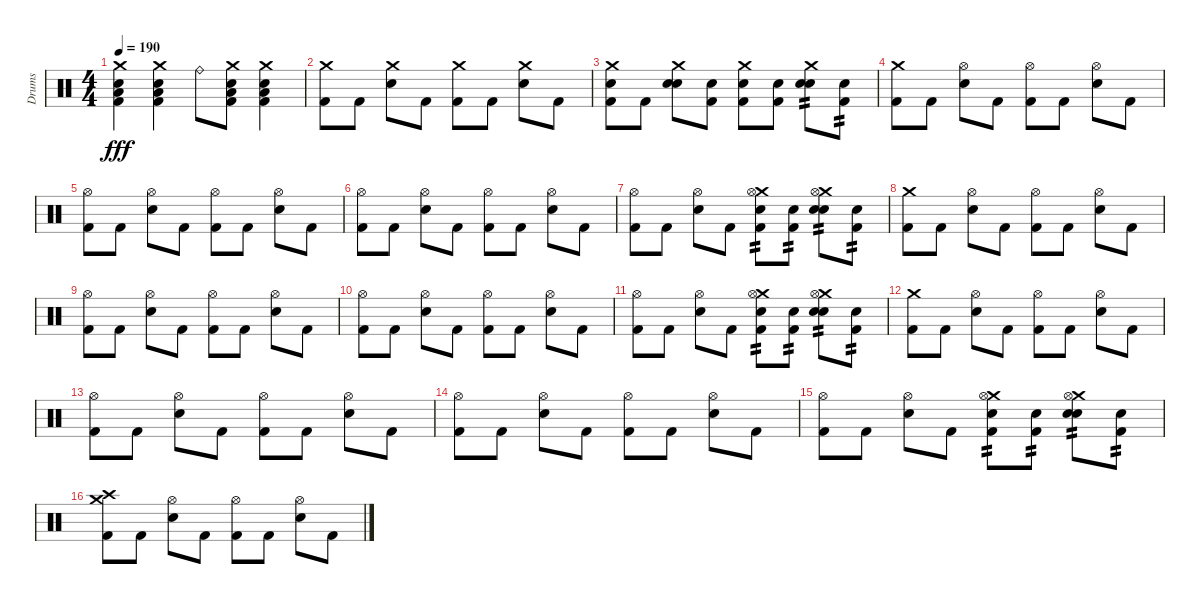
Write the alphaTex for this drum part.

\track ("Drums" "Drums") {instrument percussion}
\staff {score}
\articulation defaults
\ts (4 4)
\tempo 190
\clef neutral
\ks c
("Crash medium (hit)" "Low Floor Tom (hit)" "Snare (hit) 2" "Kick (hit) 2").4{dy fff} ("Crash medium (hit)" "Low Floor Tom (hit)" "Snare (hit) 2" "Kick (hit) 2").4 "Ride (bell)".8 ("Crash medium (hit)" "Low Floor Tom (hit)" "Snare (hit) 2" "Kick (hit) 2").8 ("Crash medium (hit)" "Low Floor Tom (hit)" "Snare (hit) 2" "Kick (hit) 2").4 |
("Crash medium (hit)" "Kick (hit) 2").8 "Kick (hit) 2".8 ("Crash medium (hit)" "Snare (hit) 2").8 "Kick (hit) 2".8 ("Crash medium (hit)" "Kick (hit) 2").8 "Kick (hit) 2".8 ("Crash medium (hit)" "Snare (hit) 2").8 "Kick (hit) 2".8 |
("Crash medium (hit)" "Electric Snare (hit)" "Kick (hit) 2").8 "Kick (hit) 2".8 ("Crash medium (hit)" "Electric Snare (hit)" "Snare (hit) 2").8 ("Electric Snare (hit)" "Kick (hit) 2").8 ("Crash medium (hit)" "Electric Snare (hit)" "Kick (hit) 2").8 ("Electric Snare (hit)" "Kick (hit) 2").8 ("Crash medium (hit)" "Electric Snare (hit)" "Snare (hit) 2").8{tp 2} ("Electric Snare (hit)" "Kick (hit) 2").8{tp 2} |
("Crash medium (hit)" "Kick (hit) 2").8 "Kick (hit) 2".8 ("Hi-Hat (open)" "Snare (hit) 2").8 "Kick (hit) 2".8 ("Hi-Hat (open)" "Kick (hit) 2").8 "Kick (hit) 2".8 ("Hi-Hat (open)" "Snare (hit) 2").8 "Kick (hit) 2".8 |
("Hi-Hat (open)" "Kick (hit) 2").8 "Kick (hit) 2".8 ("Hi-Hat (open)" "Snare (hit) 2").8 "Kick (hit) 2".8 ("Hi-Hat (open)" "Kick (hit) 2").8 "Kick (hit) 2".8 ("Hi-Hat (open)" "Snare (hit) 2").8 "Kick (hit) 2".8 |
("Hi-Hat (open)" "Kick (hit) 2").8 "Kick (hit) 2".8 ("Hi-Hat (open)" "Snare (hit) 2").8 "Kick (hit) 2".8 ("Hi-Hat (open)" "Kick (hit) 2").8 "Kick (hit) 2".8 ("Hi-Hat (open)" "Snare (hit) 2").8 "Kick (hit) 2".8 |
("Hi-Hat (open)" "Kick (hit) 2").8 "Kick (hit) 2".8 ("Hi-Hat (open)" "Snare (hit) 2").8 "Kick (hit) 2".8 ("Crash medium (hit)" "Hi-Hat (open)" "Electric Snare (hit)" "Kick (hit) 2").8{tp 2} ("Electric Snare (hit)" "Kick (hit) 2").8{tp 2} ("Crash medium (hit)" "Hi-Hat (open)" "Electric Snare (hit)" "Snare (hit) 2").8{tp 2} ("Electric Snare (hit)" "Kick (hit) 2").8{tp 2} |
("Crash medium (hit)" "Kick (hit) 2").8 "Kick (hit) 2".8 ("Hi-Hat (open)" "Snare (hit) 2").8 "Kick (hit) 2".8 ("Hi-Hat (open)" "Kick (hit) 2").8 "Kick (hit) 2".8 ("Hi-Hat (open)" "Snare (hit) 2").8 "Kick (hit) 2".8 |
("Hi-Hat (open)" "Kick (hit) 2").8 "Kick (hit) 2".8 ("Hi-Hat (open)" "Snare (hit) 2").8 "Kick (hit) 2".8 ("Hi-Hat (open)" "Kick (hit) 2").8 "Kick (hit) 2".8 ("Hi-Hat (open)" "Snare (hit) 2").8 "Kick (hit) 2".8 |
("Hi-Hat (open)" "Kick (hit) 2").8 "Kick (hit) 2".8 ("Hi-Hat (open)" "Snare (hit) 2").8 "Kick (hit) 2".8 ("Hi-Hat (open)" "Kick (hit) 2").8 "Kick (hit) 2".8 ("Hi-Hat (open)" "Snare (hit) 2").8 "Kick (hit) 2".8 |
("Hi-Hat (open)" "Kick (hit) 2").8 "Kick (hit) 2".8 ("Hi-Hat (open)" "Snare (hit) 2").8 "Kick (hit) 2".8 ("Crash medium (hit)" "Hi-Hat (open)" "Electric Snare (hit)" "Kick (hit) 2").8{tp 2} ("Electric Snare (hit)" "Kick (hit) 2").8{tp 2} ("Crash medium (hit)" "Hi-Hat (open)" "Electric Snare (hit)" "Snare (hit) 2").8{tp 2} ("Electric Snare (hit)" "Kick (hit) 2").8{tp 2} |
("Crash medium (hit)" "Kick (hit) 2").8 "Kick (hit) 2".8 ("Hi-Hat (open)" "Snare (hit) 2").8 "Kick (hit) 2".8 ("Hi-Hat (open)" "Kick (hit) 2").8 "Kick (hit) 2".8 ("Hi-Hat (open)" "Snare (hit) 2").8 "Kick (hit) 2".8 |
("Hi-Hat (open)" "Kick (hit) 2").8 "Kick (hit) 2".8 ("Hi-Hat (open)" "Snare (hit) 2").8 "Kick (hit) 2".8 ("Hi-Hat (open)" "Kick (hit) 2").8 "Kick (hit) 2".8 ("Hi-Hat (open)" "Snare (hit) 2").8 "Kick (hit) 2".8 |
("Hi-Hat (open)" "Kick (hit) 2").8 "Kick (hit) 2".8 ("Hi-Hat (open)" "Snare (hit) 2").8 "Kick (hit) 2".8 ("Hi-Hat (open)" "Kick (hit) 2").8 "Kick (hit) 2".8 ("Hi-Hat (open)" "Snare (hit) 2").8 "Kick (hit) 2".8 |
("Hi-Hat (open)" "Kick (hit) 2").8 "Kick (hit) 2".8 ("Hi-Hat (open)" "Snare (hit) 2").8 "Kick (hit) 2".8 ("Crash medium (hit)" "Hi-Hat (open)" "Electric Snare (hit)" "Kick (hit) 2").8{tp 2} ("Electric Snare (hit)" "Kick (hit) 2").8{tp 2} ("Crash medium (hit)" "Hi-Hat (open)" "Electric Snare (hit)" "Snare (hit) 2").8{tp 2} ("Electric Snare (hit)" "Kick (hit) 2").8{tp 2} |
("Crash medium (hit)" "Crash high (hit)" "Kick (hit) 2").8 "Kick (hit) 2".8 ("Hi-Hat (open)" "Snare (hit) 2").8 "Kick (hit) 2".8 ("Hi-Hat (open)" "Kick (hit) 2").8 "Kick (hit) 2".8 ("Hi-Hat (open)" "Snare (hit) 2").8 "Kick (hit) 2".8
